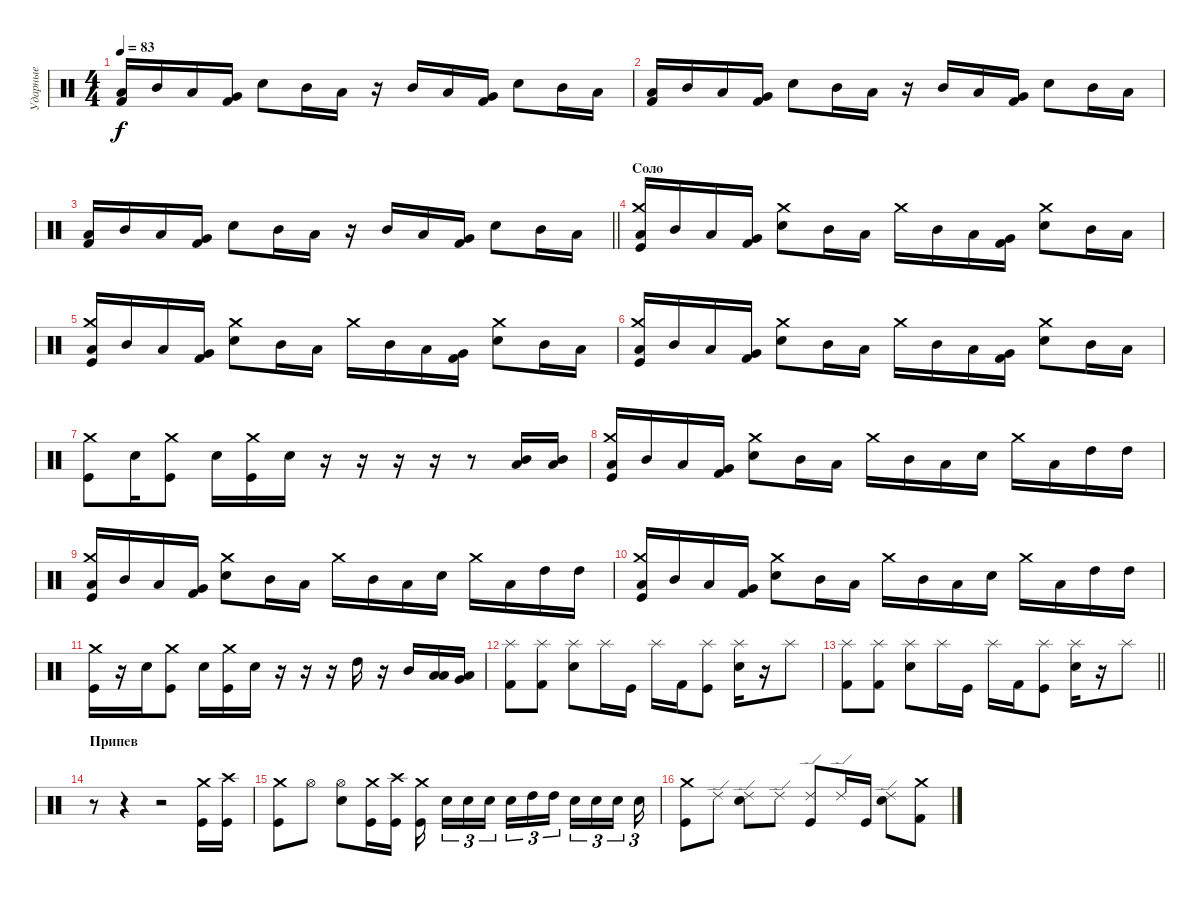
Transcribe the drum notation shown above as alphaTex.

\track ("Ударные" "Ударные") {instrument percussion}
\staff {score}
\articulation defaults
\ts (4 4)
\tempo 83
\clef neutral
\ks c
("Low Tom (hit)" "Kick (hit) 2").16{dy f} "Mid Tom (hit)".16 "Low Tom (hit)".16 ("Very Low Tom (hit)" "Kick (hit) 2").16 "Snare (hit) 2".8 "Mid Tom (hit)".16 "Low Tom (hit)".16 r.16 "Mid Tom (hit)".16 "Low Tom (hit)".16 ("Very Low Tom (hit)" "Kick (hit) 2").16 "Snare (hit) 2".8 "Mid Tom (hit)".16 "Low Tom (hit)".16 |
("Low Tom (hit)" "Kick (hit) 2").16 "Mid Tom (hit)".16 "Low Tom (hit)".16 ("Very Low Tom (hit)" "Kick (hit) 2").16 "Snare (hit) 2".8 "Mid Tom (hit)".16 "Low Tom (hit)".16 r.16 "Mid Tom (hit)".16 "Low Tom (hit)".16 ("Very Low Tom (hit)" "Kick (hit) 2").16 "Snare (hit) 2".8 "Mid Tom (hit)".16 "Low Tom (hit)".16 |
\barLineRight lightlight
("Low Tom (hit)" "Kick (hit) 2").16 "Mid Tom (hit)".16 "Low Tom (hit)".16 ("Very Low Tom (hit)" "Kick (hit) 2").16 "Snare (hit) 2".8 "Mid Tom (hit)".16 "Low Tom (hit)".16 r.16 "Mid Tom (hit)".16 "Low Tom (hit)".16 ("Very Low Tom (hit)" "Kick (hit) 2").16 "Snare (hit) 2".8 "Mid Tom (hit)".16 "Low Tom (hit)".16 |
\section ("" "Соло")
("Crash medium (hit)" "Low Tom (hit)" "Kick (hit)").16 "Mid Tom (hit)".16 "Low Tom (hit)".16 ("Very Low Tom (hit)" "Kick (hit) 2").16 ("Crash medium (hit)" "Snare (hit) 2").8 "Mid Tom (hit)".16 "Low Tom (hit)".16 "Crash medium (hit)".16 "Mid Tom (hit)".16 "Low Tom (hit)".16 ("Very Low Tom (hit)" "Kick (hit) 2").16 ("Crash medium (hit)" "Snare (hit) 2").8 "Mid Tom (hit)".16 "Low Tom (hit)".16 |
("Crash medium (hit)" "Low Tom (hit)" "Kick (hit)").16 "Mid Tom (hit)".16 "Low Tom (hit)".16 ("Very Low Tom (hit)" "Kick (hit) 2").16 ("Crash medium (hit)" "Snare (hit) 2").8 "Mid Tom (hit)".16 "Low Tom (hit)".16 "Crash medium (hit)".16 "Mid Tom (hit)".16 "Low Tom (hit)".16 ("Very Low Tom (hit)" "Kick (hit) 2").16 ("Crash medium (hit)" "Snare (hit) 2").8 "Mid Tom (hit)".16 "Low Tom (hit)".16 |
("Crash medium (hit)" "Low Tom (hit)" "Kick (hit)").16 "Mid Tom (hit)".16 "Low Tom (hit)".16 ("Very Low Tom (hit)" "Kick (hit) 2").16 ("Crash medium (hit)" "Snare (hit) 2").8 "Mid Tom (hit)".16 "Low Tom (hit)".16 "Crash medium (hit)".16 "Mid Tom (hit)".16 "Low Tom (hit)".16 ("Very Low Tom (hit)" "Kick (hit) 2").16 ("Crash medium (hit)" "Snare (hit) 2").8 "Mid Tom (hit)".16 "Low Tom (hit)".16 |
("Crash medium (hit)" "Kick (hit)").8 "Snare (hit) 2".16 ("Crash medium (hit)" "Kick (hit)").8 "Snare (hit) 2".16 ("Crash medium (hit)" "Kick (hit)").16 "Snare (hit)".16 r.16 r.16 r.16 r.16 r.8 ("Low Tom (hit)" "Mid Tom (hit)").16 ("Low Tom (hit)" "Mid Tom (hit)").16 |
("Crash medium (hit)" "Low Tom (hit)" "Kick (hit)").16 "Mid Tom (hit)".16 "Low Tom (hit)".16 ("Very Low Tom (hit)" "Kick (hit) 2").16 ("Crash medium (hit)" "Snare (hit) 2").8 "Mid Tom (hit)".16 "Low Tom (hit)".16 "Crash medium (hit)".16 "Mid Tom (hit)".16 "Low Tom (hit)".16 "Snare (hit) 2".16 "Crash medium (hit)".16 "Low Tom (hit)".16 "High Tom (hit)".16 "High Tom (hit)".16 |
("Crash medium (hit)" "Low Tom (hit)" "Kick (hit)").16 "Mid Tom (hit)".16 "Low Tom (hit)".16 ("Very Low Tom (hit)" "Kick (hit) 2").16 ("Crash medium (hit)" "Snare (hit) 2").8 "Mid Tom (hit)".16 "Low Tom (hit)".16 "Crash medium (hit)".16 "Mid Tom (hit)".16 "Low Tom (hit)".16 "Snare (hit) 2".16 "Crash medium (hit)".16 "Low Tom (hit)".16 "High Tom (hit)".16 "High Tom (hit)".16 |
("Crash medium (hit)" "Low Tom (hit)" "Kick (hit)").16 "Mid Tom (hit)".16 "Low Tom (hit)".16 ("Very Low Tom (hit)" "Kick (hit) 2").16 ("Crash medium (hit)" "Snare (hit) 2").8 "Mid Tom (hit)".16 "Low Tom (hit)".16 "Crash medium (hit)".16 "Mid Tom (hit)".16 "Low Tom (hit)".16 "Snare (hit) 2".16 "Crash medium (hit)".16 "Low Tom (hit)".16 "High Tom (hit)".16 "High Tom (hit)".16 |
("Crash medium (hit)" "Kick (hit)").16 r.16 "Snare (hit) 2".16 ("Crash medium (hit)" "Kick (hit)").8 "Snare (hit) 2".16 ("Crash medium (hit)" "Kick (hit)").16 "Snare (hit)".16 r.16 r.16 r.16 "High Tom (hit)".16 r.16 "Mid Tom (hit)".16 ("Low Tom (hit)" "Low Tom (hit)").16 ("Low Tom (hit)" "Very Low Tom (hit)").16 |
("Splash (hit)" "Kick (hit) 2").8 ("Splash (hit)" "Kick (hit) 2").8 ("Splash (hit)" "Snare (hit) 2").8 "Splash (hit)".16 "Kick (hit)".16 "Splash (hit)".16 "Kick (hit) 2".16 ("Splash (hit)" "Kick (hit)").8 ("Splash (hit)" "Snare (hit) 2").16 r.16 "Splash (hit)".8 |
\barLineRight lightlight
("Splash (hit)" "Kick (hit) 2").8 ("Splash (hit)" "Kick (hit) 2").8 ("Splash (hit)" "Snare (hit) 2").8 "Splash (hit)".16 "Kick (hit)".16 "Splash (hit)".16 "Kick (hit) 2".16 ("Splash (hit)" "Kick (hit)").8 ("Splash (hit)" "Snare (hit) 2").16 r.16 "Splash (hit)".8 |
\section ("" "Припев")
r.8 r.4 r.2 ("Crash medium (hit)" "Kick (hit)").16 ("Crash high (hit)" "Kick (hit)").16 |
("Crash medium (hit)" "Kick (hit)").8 "Hi-Hat (open)".8 ("Hi-Hat (open)" "Snare (hit) 2").8 ("Crash medium (hit)" "Kick (hit)").16 ("Crash high (hit)" "Kick (hit)").16 ("Crash medium (hit)" "Kick (hit)").16{beam splitsecondary} "Snare (hit) 2".16{tu (3 2)} "Snare (hit) 2".16{tu (3 2)} "Snare (hit) 2".16{tu (3 2) beam splitsecondary} "Snare (hit) 2".16{tu (3 2)} "High Tom (hit)".16{tu (3 2)} "High Tom (hit)".16{tu (3 2) beam splitsecondary} "Snare (hit) 2".16{tu (3 2)} "Snare (hit) 2".16{tu (3 2)} "Snare (hit) 2".16{tu (3 2) beam splitsecondary} "Snare (hit) 2".16{tu (3 2)} |
("Crash medium (hit)" "Kick (hit)").8 "Ride (edge) 2".8 ("Ride (edge) 2" "Snare (hit) 2").8 "Ride (edge) 2".8 ("Ride (edge) 2" "Kick (hit)").8 "Ride (edge) 2".16 "Kick (hit)".16 ("Ride (edge) 2" "Snare (hit) 2").8 ("Crash medium (hit)" "Kick (hit) 2").8
